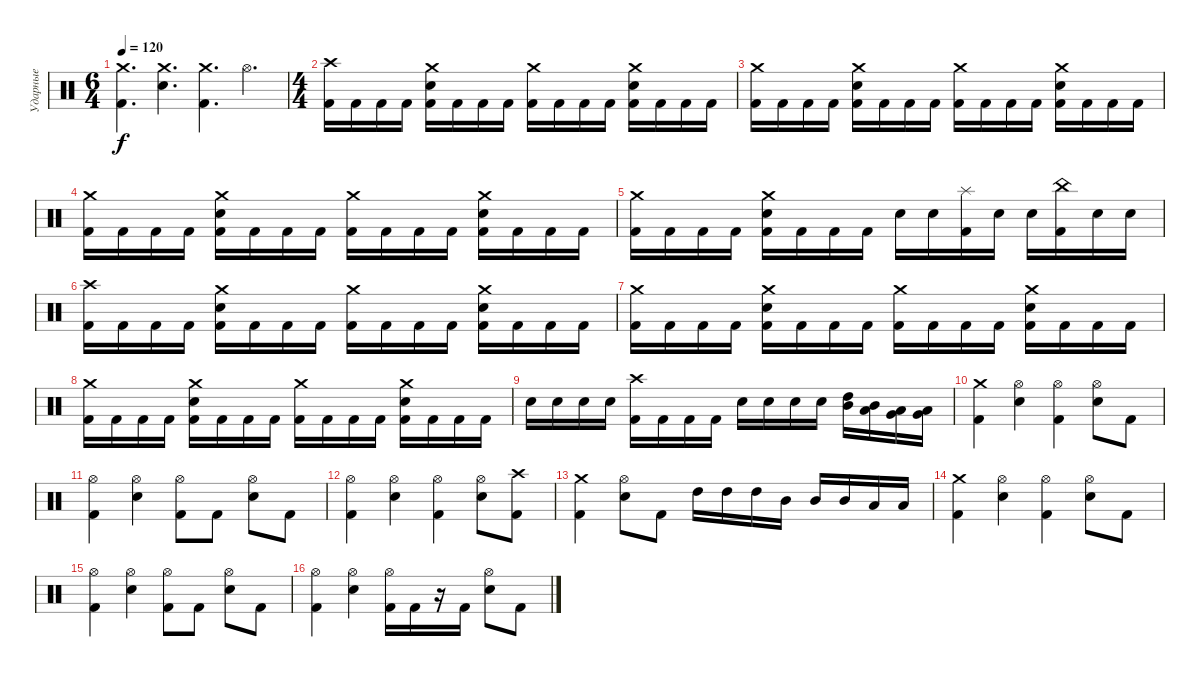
\track ("Ударные" "Ударные") {instrument percussion}
\staff {score}
\articulation defaults
\ts (6 4)
\tempo 120
\clef neutral
\ks c
("Crash medium (hit)" "Kick (hit) 2").4{d dy f} ("Crash medium (hit)" "Electric Snare (hit)").4{d} ("Crash medium (hit)" "Kick (hit) 2").4{d} "Hi-Hat (open)".4{d} |
\ts (4 4)
("Crash high (hit)" "Kick (hit) 2").16 "Kick (hit) 2".16 "Kick (hit) 2".16 "Kick (hit) 2".16 ("Crash medium (hit)" "Electric Snare (hit)" "Kick (hit) 2").16 "Kick (hit) 2".16 "Kick (hit) 2".16 "Kick (hit) 2".16 ("Crash medium (hit)" "Kick (hit) 2").16 "Kick (hit) 2".16 "Kick (hit) 2".16 "Kick (hit) 2".16 ("Crash medium (hit)" "Electric Snare (hit)" "Kick (hit) 2").16 "Kick (hit) 2".16 "Kick (hit) 2".16 "Kick (hit) 2".16 |
("Crash medium (hit)" "Kick (hit) 2").16 "Kick (hit) 2".16 "Kick (hit) 2".16 "Kick (hit) 2".16 ("Crash medium (hit)" "Electric Snare (hit)" "Kick (hit) 2").16 "Kick (hit) 2".16 "Kick (hit) 2".16 "Kick (hit) 2".16 ("Crash medium (hit)" "Kick (hit) 2").16 "Kick (hit) 2".16 "Kick (hit) 2".16 "Kick (hit) 2".16 ("Crash medium (hit)" "Electric Snare (hit)" "Kick (hit) 2").16 "Kick (hit) 2".16 "Kick (hit) 2".16 "Kick (hit) 2".16 |
("Crash medium (hit)" "Kick (hit) 2").16 "Kick (hit) 2".16 "Kick (hit) 2".16 "Kick (hit) 2".16 ("Crash medium (hit)" "Electric Snare (hit)" "Kick (hit) 2").16 "Kick (hit) 2".16 "Kick (hit) 2".16 "Kick (hit) 2".16 ("Crash medium (hit)" "Kick (hit) 2").16 "Kick (hit) 2".16 "Kick (hit) 2".16 "Kick (hit) 2".16 ("Crash medium (hit)" "Electric Snare (hit)" "Kick (hit) 2").16 "Kick (hit) 2".16 "Kick (hit) 2".16 "Kick (hit) 2".16 |
("Crash medium (hit)" "Kick (hit) 2").16 "Kick (hit) 2".16 "Kick (hit) 2".16 "Kick (hit) 2".16 ("Crash medium (hit)" "Electric Snare (hit)" "Kick (hit) 2").16 "Kick (hit) 2".16 "Kick (hit) 2".16 "Kick (hit) 2".16 "Electric Snare (hit)".16 "Electric Snare (hit)".16 ("Splash (hit)" "Kick (hit) 2").16 "Electric Snare (hit)".16 "Electric Snare (hit)".16 ("China (hit)" "Kick (hit) 2").16 "Electric Snare (hit)".16 "Electric Snare (hit)".16 |
("Crash high (hit)" "Kick (hit) 2").16 "Kick (hit) 2".16 "Kick (hit) 2".16 "Kick (hit) 2".16 ("Crash medium (hit)" "Electric Snare (hit)" "Kick (hit) 2").16 "Kick (hit) 2".16 "Kick (hit) 2".16 "Kick (hit) 2".16 ("Crash medium (hit)" "Kick (hit) 2").16 "Kick (hit) 2".16 "Kick (hit) 2".16 "Kick (hit) 2".16 ("Crash medium (hit)" "Electric Snare (hit)" "Kick (hit) 2").16 "Kick (hit) 2".16 "Kick (hit) 2".16 "Kick (hit) 2".16 |
("Crash medium (hit)" "Kick (hit) 2").16 "Kick (hit) 2".16 "Kick (hit) 2".16 "Kick (hit) 2".16 ("Crash medium (hit)" "Electric Snare (hit)" "Kick (hit) 2").16 "Kick (hit) 2".16 "Kick (hit) 2".16 "Kick (hit) 2".16 ("Crash medium (hit)" "Kick (hit) 2").16 "Kick (hit) 2".16 "Kick (hit) 2".16 "Kick (hit) 2".16 ("Crash medium (hit)" "Electric Snare (hit)" "Kick (hit) 2").16 "Kick (hit) 2".16 "Kick (hit) 2".16 "Kick (hit) 2".16 |
("Crash medium (hit)" "Kick (hit) 2").16 "Kick (hit) 2".16 "Kick (hit) 2".16 "Kick (hit) 2".16 ("Crash medium (hit)" "Electric Snare (hit)" "Kick (hit) 2").16 "Kick (hit) 2".16 "Kick (hit) 2".16 "Kick (hit) 2".16 ("Crash medium (hit)" "Kick (hit) 2").16 "Kick (hit) 2".16 "Kick (hit) 2".16 "Kick (hit) 2".16 ("Crash medium (hit)" "Electric Snare (hit)" "Kick (hit) 2").16 "Kick (hit) 2".16 "Kick (hit) 2".16 "Kick (hit) 2".16 |
"Electric Snare (hit)".16 "Electric Snare (hit)".16 "Electric Snare (hit)".16 "Electric Snare (hit)".16 ("Crash high (hit)" "Kick (hit) 2").16 "Kick (hit) 2".16 "Kick (hit) 2".16 "Kick (hit) 2".16 "Electric Snare (hit)".16 "Electric Snare (hit)".16 "Electric Snare (hit)".16 "Electric Snare (hit)".16 ("High Tom (hit)" "Mid Tom (hit)").16 ("Mid Tom (hit)" "Low Tom (hit)").16 ("Low Tom (hit)" "Very Low Tom (hit)").16 ("Very Low Tom (hit)" "Low Floor Tom (hit)").16 |
("Crash medium (hit)" "Kick (hit) 2").4 ("Hi-Hat (open)" "Electric Snare (hit)").4 ("Hi-Hat (open)" "Kick (hit) 2").4 ("Hi-Hat (open)" "Electric Snare (hit)").8 "Kick (hit) 2".8 |
("Hi-Hat (open)" "Kick (hit) 2").4 ("Hi-Hat (open)" "Electric Snare (hit)").4 ("Hi-Hat (open)" "Kick (hit) 2").8 "Kick (hit) 2".8 ("Hi-Hat (open)" "Electric Snare (hit)").8 "Kick (hit) 2".8 |
("Hi-Hat (open)" "Kick (hit) 2").4 ("Hi-Hat (open)" "Electric Snare (hit)").4 ("Hi-Hat (open)" "Kick (hit) 2").4 ("Hi-Hat (open)" "Electric Snare (hit)").8 ("Crash high (hit)" "Kick (hit) 2").8 |
("Crash medium (hit)" "Kick (hit) 2").4 ("Hi-Hat (open)" "Electric Snare (hit)").8 "Kick (hit) 2".8 "High Tom (hit)".16 "High Tom (hit)".16 "High Tom (hit)".16 "Mid Tom (hit)".16 "Mid Tom (hit)".16 "Mid Tom (hit)".16 "Low Tom (hit)".16 "Low Tom (hit)".16 |
("Crash medium (hit)" "Kick (hit) 2").4 ("Hi-Hat (open)" "Electric Snare (hit)").4 ("Hi-Hat (open)" "Kick (hit) 2").4 ("Hi-Hat (open)" "Electric Snare (hit)").8 "Kick (hit) 2".8 |
("Hi-Hat (open)" "Kick (hit) 2").4 ("Hi-Hat (open)" "Electric Snare (hit)").4 ("Hi-Hat (open)" "Kick (hit) 2").8 "Kick (hit) 2".8 ("Hi-Hat (open)" "Electric Snare (hit)").8 "Kick (hit) 2".8 |
("Hi-Hat (open)" "Kick (hit) 2").4 ("Hi-Hat (open)" "Electric Snare (hit)").4 ("Hi-Hat (open)" "Kick (hit) 2").16 "Kick (hit) 2".16 r.16 "Kick (hit) 2".16 ("Hi-Hat (open)" "Electric Snare (hit)").8 "Kick (hit) 2".8
